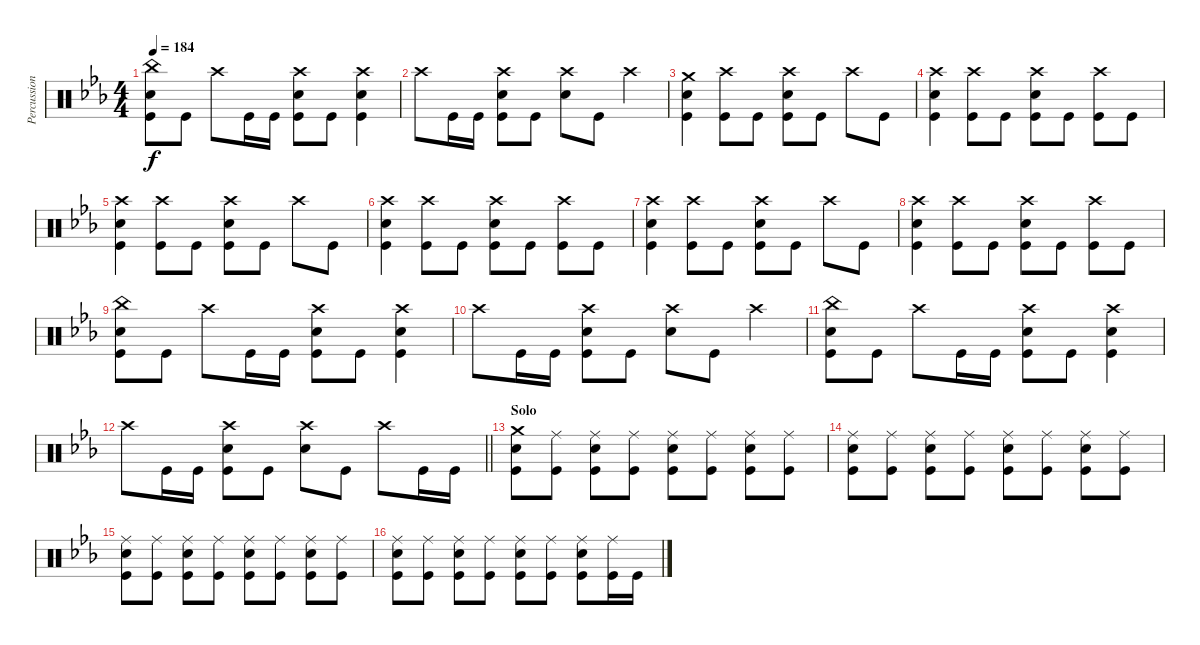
\track ("Percussion" "Percussion") {instrument percussion}
\staff {score}
\articulation defaults
\ts (4 4)
\tempo 184
\clef neutral
\ks eb
("China (hit)" "Electric Snare (hit)" "Kick (hit)").8{dy f} "Kick (hit)".8 "Crash high (hit)".8 "Kick (hit)".16 "Kick (hit)".16 ("Crash high (hit)" "Electric Snare (hit)" "Kick (hit)").8 "Kick (hit)".8 ("Crash high (hit)" "Electric Snare (hit)" "Kick (hit)").4 |
"Crash high (hit)".8 "Kick (hit)".16 "Kick (hit)".16 ("Crash high (hit)" "Electric Snare (hit)" "Kick (hit)").8 "Kick (hit)".8 ("Crash high (hit)" "Electric Snare (hit)").8 "Kick (hit)".8 "Crash high (hit)".4 |
("Crash medium (hit)" "Electric Snare (hit)" "Kick (hit)").4 ("Crash high (hit)" "Kick (hit)").8 "Kick (hit)".8 ("Crash high (hit)" "Electric Snare (hit)" "Kick (hit)").8 "Kick (hit)".8 "Crash high (hit)".8 "Kick (hit)".8 |
("Crash high (hit)" "Electric Snare (hit)" "Kick (hit)").4 ("Crash high (hit)" "Kick (hit)").8 "Kick (hit)".8 ("Crash high (hit)" "Electric Snare (hit)" "Kick (hit)").8 "Kick (hit)".8 ("Crash high (hit)" "Kick (hit)").8 "Kick (hit)".8 |
("Crash high (hit)" "Electric Snare (hit)" "Kick (hit)").4 ("Crash high (hit)" "Kick (hit)").8 "Kick (hit)".8 ("Crash high (hit)" "Electric Snare (hit)" "Kick (hit)").8 "Kick (hit)".8 "Crash high (hit)".8 "Kick (hit)".8 |
("Crash high (hit)" "Electric Snare (hit)" "Kick (hit)").4 ("Crash high (hit)" "Kick (hit)").8 "Kick (hit)".8 ("Crash high (hit)" "Electric Snare (hit)" "Kick (hit)").8 "Kick (hit)".8 ("Crash high (hit)" "Kick (hit)").8 "Kick (hit)".8 |
("Crash high (hit)" "Electric Snare (hit)" "Kick (hit)").4 ("Crash high (hit)" "Kick (hit)").8 "Kick (hit)".8 ("Crash high (hit)" "Electric Snare (hit)" "Kick (hit)").8 "Kick (hit)".8 "Crash high (hit)".8 "Kick (hit)".8 |
("Crash high (hit)" "Electric Snare (hit)" "Kick (hit)").4 ("Crash high (hit)" "Kick (hit)").8 "Kick (hit)".8 ("Crash high (hit)" "Electric Snare (hit)" "Kick (hit)").8 "Kick (hit)".8 ("Crash high (hit)" "Kick (hit)").8 "Kick (hit)".8 |
("China (hit)" "Electric Snare (hit)" "Kick (hit)").8 "Kick (hit)".8 "Crash high (hit)".8 "Kick (hit)".16 "Kick (hit)".16 ("Crash high (hit)" "Electric Snare (hit)" "Kick (hit)").8 "Kick (hit)".8 ("Crash high (hit)" "Electric Snare (hit)" "Kick (hit)").4 |
"Crash high (hit)".8 "Kick (hit)".16 "Kick (hit)".16 ("Crash high (hit)" "Electric Snare (hit)" "Kick (hit)").8 "Kick (hit)".8 ("Crash high (hit)" "Electric Snare (hit)").8 "Kick (hit)".8 "Crash high (hit)".4 |
("China (hit)" "Electric Snare (hit)" "Kick (hit)").8 "Kick (hit)".8 "Crash high (hit)".8 "Kick (hit)".16 "Kick (hit)".16 ("Crash high (hit)" "Electric Snare (hit)" "Kick (hit)").8 "Kick (hit)".8 ("Crash high (hit)" "Electric Snare (hit)" "Kick (hit)").4 |
\barLineRight lightlight "Crash high (hit)".8 "Kick (hit)".16 "Kick (hit)".16
("Crash high (hit)" "Electric Snare (hit)" "Kick (hit)").8 "Kick (hit)".8 ("Crash high (hit)" "Electric Snare (hit)").8 "Kick (hit)".8 "Crash high (hit)".8 "Kick (hit)".16 "Kick (hit)".16 |
\section ("" "Solo")
("Crash medium (hit)" "Electric Snare (hit)" "Kick (hit)").8 ("Ride (middle)" "Kick (hit)").8 ("Ride (middle)" "Electric Snare (hit)" "Kick (hit)").8 ("Ride (middle)" "Kick (hit)").8 ("Ride (middle)" "Electric Snare (hit)" "Kick (hit)").8 ("Ride (middle)" "Kick (hit)").8 ("Ride (middle)" "Electric Snare (hit)" "Kick (hit)").8 ("Ride (middle)" "Kick (hit)").8 |
("Ride (middle)" "Electric Snare (hit)" "Kick (hit)").8 ("Ride (middle)" "Kick (hit)").8 ("Ride (middle)" "Electric Snare (hit)" "Kick (hit)").8 ("Ride (middle)" "Kick (hit)").8 ("Ride (middle)" "Electric Snare (hit)" "Kick (hit)").8 ("Ride (middle)" "Kick (hit)").8 ("Ride (middle)" "Electric Snare (hit)" "Kick (hit)").8 ("Ride (middle)" "Kick (hit)").8 |
("Ride (middle)" "Electric Snare (hit)" "Kick (hit)").8 ("Ride (middle)" "Kick (hit)").8 ("Ride (middle)" "Electric Snare (hit)" "Kick (hit)").8 ("Ride (middle)" "Kick (hit)").8 ("Ride (middle)" "Electric Snare (hit)" "Kick (hit)").8 ("Ride (middle)" "Kick (hit)").8 ("Ride (middle)" "Electric Snare (hit)" "Kick (hit)").8 ("Ride (middle)" "Kick (hit)").8 |
("Ride (middle)" "Electric Snare (hit)" "Kick (hit)").8 ("Ride (middle)" "Kick (hit)").8 ("Ride (middle)" "Electric Snare (hit)" "Kick (hit)").8 ("Ride (middle)" "Kick (hit)").8 ("Ride (middle)" "Electric Snare (hit)" "Kick (hit)").8 ("Ride (middle)" "Kick (hit)").8 ("Ride (middle)" "Electric Snare (hit)" "Kick (hit)").8 ("Ride (middle)" "Kick (hit)").16 "Kick (hit)".16
